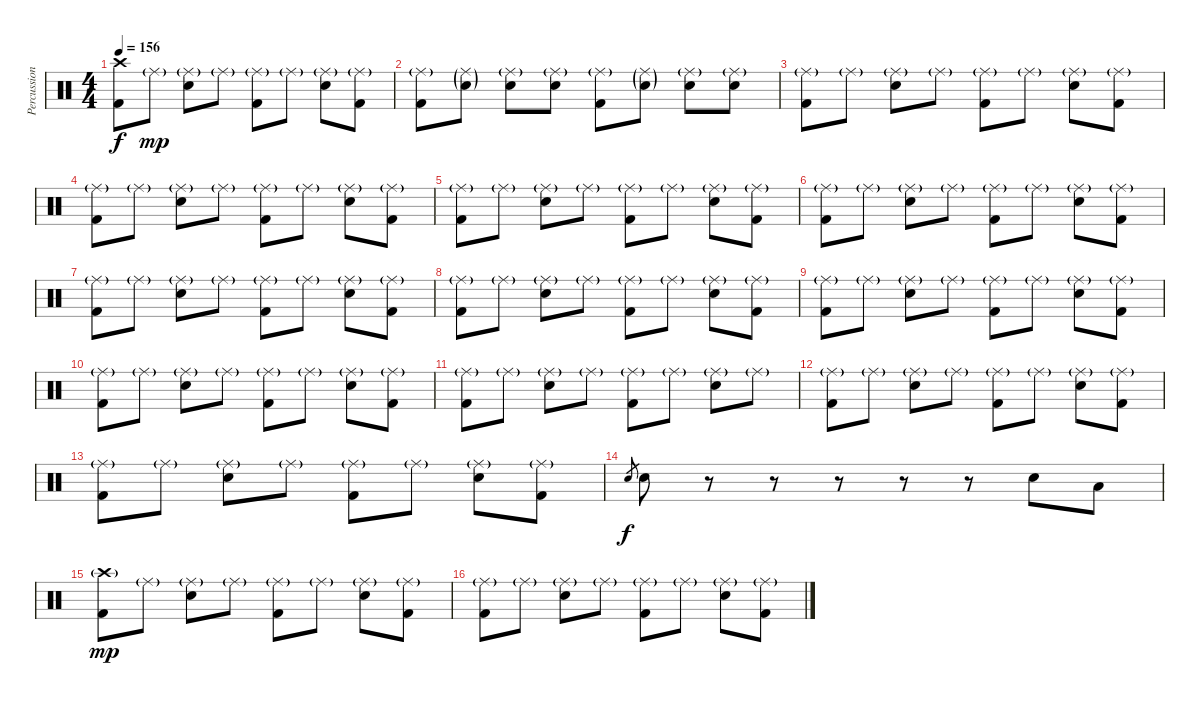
\track ("Percussion" "Percussion") {instrument percussion}
\staff {score}
\articulation defaults
\ts (4 4)
\tempo 156
\clef neutral
\ks c
("Crash high (hit)" "Kick (hit) 2").8{dy f} "Ride (middle)"{g}.8{dy mp} ("Ride (middle)"{g} "Electric Snare (hit)").8 "Ride (middle)"{g}.8 ("Ride (middle)"{g} "Kick (hit) 2").8 "Ride (middle)"{g}.8 ("Ride (middle)"{g} "Electric Snare (hit)").8 ("Ride (middle)"{g} "Kick (hit) 2").8 |
("Ride (middle)"{g} "Kick (hit) 2").8 ("Ride (middle)"{g} "Electric Snare (hit)"{g}).8 ("Ride (middle)"{g} "Electric Snare (hit)").8 ("Ride (middle)"{g} "Electric Snare (hit)").8 ("Ride (middle)"{g} "Kick (hit) 2").8 ("Ride (middle)"{g} "Electric Snare (hit)"{g}).8 ("Ride (middle)"{g} "Electric Snare (hit)").8 ("Ride (middle)"{g} "Electric Snare (hit)").8 |
("Ride (middle)"{g} "Kick (hit) 2").8 "Ride (middle)"{g}.8 ("Ride (middle)"{g} "Electric Snare (hit)").8 "Ride (middle)"{g}.8 ("Ride (middle)"{g} "Kick (hit) 2").8 "Ride (middle)"{g}.8 ("Ride (middle)"{g} "Electric Snare (hit)").8 ("Ride (middle)"{g} "Kick (hit) 2").8 |
("Ride (middle)"{g} "Kick (hit) 2").8 "Ride (middle)"{g}.8 ("Ride (middle)"{g} "Electric Snare (hit)").8 "Ride (middle)"{g}.8 ("Ride (middle)"{g} "Kick (hit) 2").8 "Ride (middle)"{g}.8 ("Ride (middle)"{g} "Electric Snare (hit)").8 ("Ride (middle)"{g} "Kick (hit) 2").8 |
("Ride (middle)"{g} "Kick (hit) 2").8 "Ride (middle)"{g}.8 ("Ride (middle)"{g} "Electric Snare (hit)").8 "Ride (middle)"{g}.8 ("Ride (middle)"{g} "Kick (hit) 2").8 "Ride (middle)"{g}.8 ("Ride (middle)"{g} "Electric Snare (hit)").8 ("Ride (middle)"{g} "Kick (hit) 2").8 |
("Ride (middle)"{g} "Kick (hit) 2").8 "Ride (middle)"{g}.8 ("Ride (middle)"{g} "Electric Snare (hit)").8 "Ride (middle)"{g}.8 ("Ride (middle)"{g} "Kick (hit) 2").8 "Ride (middle)"{g}.8 ("Ride (middle)"{g} "Electric Snare (hit)").8 ("Ride (middle)"{g} "Kick (hit) 2").8 |
("Ride (middle)"{g} "Kick (hit) 2").8 "Ride (middle)"{g}.8 ("Ride (middle)"{g} "Electric Snare (hit)").8 "Ride (middle)"{g}.8 ("Ride (middle)"{g} "Kick (hit) 2").8 "Ride (middle)"{g}.8 ("Ride (middle)"{g} "Electric Snare (hit)").8 ("Ride (middle)"{g} "Kick (hit) 2").8 |
("Ride (middle)"{g} "Kick (hit) 2").8 "Ride (middle)"{g}.8 ("Ride (middle)"{g} "Electric Snare (hit)").8 "Ride (middle)"{g}.8 ("Ride (middle)"{g} "Kick (hit) 2").8 "Ride (middle)"{g}.8 ("Ride (middle)"{g} "Electric Snare (hit)").8 ("Ride (middle)"{g} "Kick (hit) 2").8 |
("Ride (middle)"{g} "Kick (hit) 2").8 "Ride (middle)"{g}.8 ("Ride (middle)"{g} "Electric Snare (hit)").8 "Ride (middle)"{g}.8 ("Ride (middle)"{g} "Kick (hit) 2").8 "Ride (middle)"{g}.8 ("Ride (middle)"{g} "Electric Snare (hit)").8 ("Ride (middle)"{g} "Kick (hit) 2").8 |
("Ride (middle)"{g} "Kick (hit) 2").8 "Ride (middle)"{g}.8 ("Ride (middle)"{g} "Electric Snare (hit)").8 "Ride (middle)"{g}.8 ("Ride (middle)"{g} "Kick (hit) 2").8 "Ride (middle)"{g}.8 ("Ride (middle)"{g} "Electric Snare (hit)").8 ("Ride (middle)"{g} "Kick (hit) 2").8 |
("Ride (middle)"{g} "Kick (hit) 2").8 "Ride (middle)"{g}.8 ("Ride (middle)"{g} "Electric Snare (hit)").8 "Ride (middle)"{g}.8 ("Ride (middle)"{g} "Kick (hit) 2").8 "Ride (middle)"{g}.8 ("Ride (middle)"{g} "Electric Snare (hit)").8 "Ride (middle)"{g}.8 |
("Ride (middle)"{g} "Kick (hit) 2").8 "Ride (middle)"{g}.8 ("Ride (middle)"{g} "Electric Snare (hit)").8 "Ride (middle)"{g}.8 ("Ride (middle)"{g} "Kick (hit) 2").8 "Ride (middle)"{g}.8 ("Ride (middle)"{g} "Electric Snare (hit)").8 ("Ride (middle)"{g} "Kick (hit) 2").8 |
("Ride (middle)"{g} "Kick (hit) 2").8 "Ride (middle)"{g}.8 ("Ride (middle)"{g} "Electric Snare (hit)").8 "Ride (middle)"{g}.8 ("Ride (middle)"{g} "Kick (hit) 2").8 "Ride (middle)"{g}.8 ("Ride (middle)"{g} "Electric Snare (hit)").8 ("Ride (middle)"{g} "Kick (hit) 2").8 |
"Electric Snare (hit)".8{gr dy f} "Electric Snare (hit)".8 r.8 r.8 r.8 r.8 r.8 "Electric Snare (hit)".8 "Low Tom (hit)".8 |
("Crash high (hit)"{g} "Kick (hit) 2").8{dy mp} "Ride (middle)"{g}.8 ("Ride (middle)"{g} "Electric Snare (hit)").8 "Ride (middle)"{g}.8 ("Ride (middle)"{g} "Kick (hit) 2").8 "Ride (middle)"{g}.8 ("Ride (middle)"{g} "Electric Snare (hit)").8 ("Ride (middle)"{g} "Kick (hit) 2").8 |
("Ride (middle)"{g} "Kick (hit) 2").8 "Ride (middle)"{g}.8 ("Ride (middle)"{g} "Electric Snare (hit)").8 "Ride (middle)"{g}.8 ("Ride (middle)"{g} "Kick (hit) 2").8 "Ride (middle)"{g}.8 ("Ride (middle)"{g} "Electric Snare (hit)").8 ("Ride (middle)"{g} "Kick (hit) 2").8
